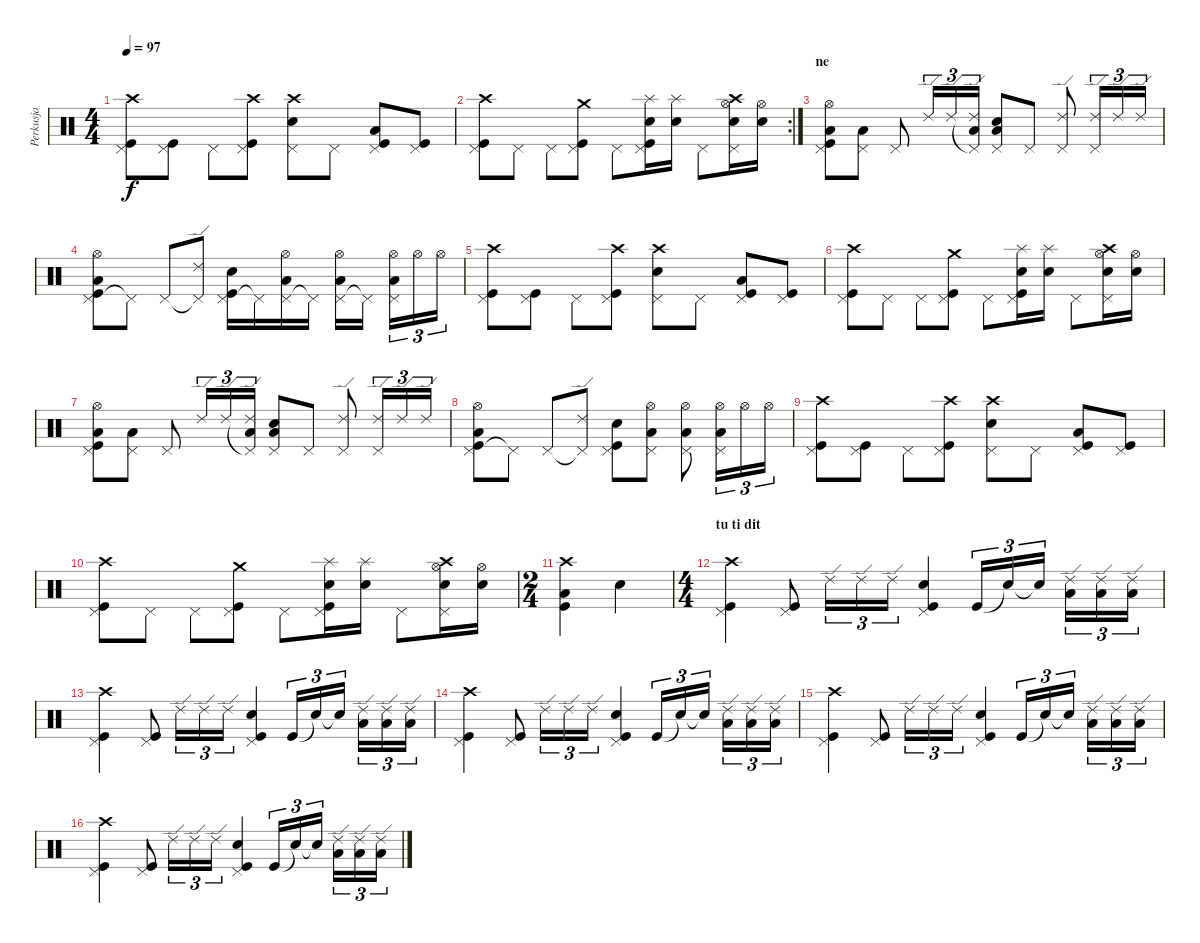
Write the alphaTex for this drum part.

\track ("Perkusja" "Perkusja") {instrument percussion}
\staff {score}
\articulation defaults
\ts (4 4)
\tempo 97
\clef neutral
\ks c
("Crash high (hit)" "Kick (hit)" "Pedal Hi-Hat (hit)").8{dy f} ("Kick (hit)" "Pedal Hi-Hat (hit)").8 "Pedal Hi-Hat (hit)".8 ("Crash high (hit)" "Kick (hit)" "Pedal Hi-Hat (hit)").8 ("Crash high (hit)" "Electric Snare (hit)" "Pedal Hi-Hat (hit)").8 "Pedal Hi-Hat (hit)".8 ("Low Floor Tom (hit)" "Kick (hit)" "Pedal Hi-Hat (hit)").8 ("Kick (hit)" "Pedal Hi-Hat (hit)").8 |
\rc 2
("Crash high (hit)" "Kick (hit)" "Pedal Hi-Hat (hit)").8 "Pedal Hi-Hat (hit)".8 "Pedal Hi-Hat (hit)".8 ("Crash medium (hit)" "Kick (hit)" "Pedal Hi-Hat (hit)").8 "Pedal Hi-Hat (hit)".8 ("Splash (hit)" "Electric Snare (hit)" "Kick (hit)" "Pedal Hi-Hat (hit)").16 ("Splash (hit)" "Electric Snare (hit)").16 "Pedal Hi-Hat (hit)".8 ("Crash high (hit)" "Hi-Hat (open)" "Electric Snare (hit)" "Pedal Hi-Hat (hit)").16 ("Hi-Hat (open)" "Electric Snare (hit)").16 |
\section ("" "ne")
("Pedal Hi-Hat (hit)" "Hi-Hat (open)" "Kick (hit)" "Low Floor Tom (hit)").8 ("Pedal Hi-Hat (hit)" "Low Floor Tom (hit)").8 "Pedal Hi-Hat (hit)".8 "Ride (edge) 2".16{tu (3 2)} "Ride (edge) 2".16{tu (3 2)} ("Pedal Hi-Hat (hit)"{t} "Ride (edge) 2" "Low Floor Tom (hit)").16{tu (3 2)} ("Pedal Hi-Hat (hit)" "Electric Snare (hit)" "Low Floor Tom (hit)").8 "Pedal Hi-Hat (hit)".8 ("Pedal Hi-Hat (hit)" "Ride (edge) 2").8 ("Pedal Hi-Hat (hit)" "Ride (edge) 2").16{tu (3 2)} "Ride (edge) 2".16{tu (3 2)} "Ride (edge) 2".16{tu (3 2)} |
("Pedal Hi-Hat (hit)" "Hi-Hat (open)" "Kick (hit)" "Low Floor Tom (hit)").8 "Pedal Hi-Hat (hit)"{t}.8 "Pedal Hi-Hat (hit)".8 ("Pedal Hi-Hat (hit)"{t} "Ride (edge) 2").8 ("Pedal Hi-Hat (hit)" "Electric Snare (hit)" "Kick (hit)").16 "Pedal Hi-Hat (hit)"{t}.16 ("Pedal Hi-Hat (hit)" "Low Floor Tom (hit)" "Hi-Hat (open)").16 "Pedal Hi-Hat (hit)"{t}.16 ("Pedal Hi-Hat (hit)" "Low Floor Tom (hit)" "Hi-Hat (open)").16 "Pedal Hi-Hat (hit)"{t}.16 ("Pedal Hi-Hat (hit)" "Low Floor Tom (hit)" "Hi-Hat (open)").16{tu (3 2)} "Hi-Hat (open)".16{tu (3 2)} "Hi-Hat (open)".16{tu (3 2)} |
("Crash high (hit)" "Kick (hit)" "Pedal Hi-Hat (hit)").8 ("Kick (hit)" "Pedal Hi-Hat (hit)").8 "Pedal Hi-Hat (hit)".8 ("Crash high (hit)" "Kick (hit)" "Pedal Hi-Hat (hit)").8 ("Crash high (hit)" "Electric Snare (hit)" "Pedal Hi-Hat (hit)").8 "Pedal Hi-Hat (hit)".8 ("Low Floor Tom (hit)" "Kick (hit)" "Pedal Hi-Hat (hit)").8 ("Kick (hit)" "Pedal Hi-Hat (hit)").8 |
("Crash high (hit)" "Kick (hit)" "Pedal Hi-Hat (hit)").8 "Pedal Hi-Hat (hit)".8 "Pedal Hi-Hat (hit)".8 ("Crash medium (hit)" "Kick (hit)" "Pedal Hi-Hat (hit)").8 "Pedal Hi-Hat (hit)".8 ("Splash (hit)" "Electric Snare (hit)" "Kick (hit)" "Pedal Hi-Hat (hit)").16 ("Splash (hit)" "Electric Snare (hit)").16 "Pedal Hi-Hat (hit)".8 ("Crash high (hit)" "Hi-Hat (open)" "Electric Snare (hit)" "Pedal Hi-Hat (hit)").16 ("Hi-Hat (open)" "Electric Snare (hit)").16 |
("Pedal Hi-Hat (hit)" "Hi-Hat (open)" "Kick (hit)" "Low Floor Tom (hit)").8 ("Pedal Hi-Hat (hit)" "Low Floor Tom (hit)").8 "Pedal Hi-Hat (hit)".8 "Ride (edge) 2".16{tu (3 2)} "Ride (edge) 2".16{tu (3 2)} ("Pedal Hi-Hat (hit)"{t} "Ride (edge) 2" "Low Floor Tom (hit)").16{tu (3 2)} ("Pedal Hi-Hat (hit)" "Electric Snare (hit)" "Low Floor Tom (hit)").8 "Pedal Hi-Hat (hit)".8 ("Pedal Hi-Hat (hit)" "Ride (edge) 2").8 ("Pedal Hi-Hat (hit)" "Ride (edge) 2").16{tu (3 2)} "Ride (edge) 2".16{tu (3 2)} "Ride (edge) 2".16{tu (3 2)} |
("Pedal Hi-Hat (hit)" "Hi-Hat (open)" "Kick (hit)" "Low Floor Tom (hit)").8 "Pedal Hi-Hat (hit)"{t}.8 "Pedal Hi-Hat (hit)".8 ("Pedal Hi-Hat (hit)"{t} "Ride (edge) 2").8 ("Pedal Hi-Hat (hit)" "Electric Snare (hit)" "Kick (hit)").8 ("Pedal Hi-Hat (hit)" "Low Floor Tom (hit)" "Hi-Hat (open)").8 ("Pedal Hi-Hat (hit)" "Low Floor Tom (hit)" "Hi-Hat (open)").8 ("Pedal Hi-Hat (hit)" "Low Floor Tom (hit)" "Hi-Hat (open)").16{tu (3 2)} "Hi-Hat (open)".16{tu (3 2)} "Hi-Hat (open)".16{tu (3 2)} |
("Crash high (hit)" "Kick (hit)" "Pedal Hi-Hat (hit)").8 ("Kick (hit)" "Pedal Hi-Hat (hit)").8 "Pedal Hi-Hat (hit)".8 ("Crash high (hit)" "Kick (hit)" "Pedal Hi-Hat (hit)").8 ("Crash high (hit)" "Electric Snare (hit)" "Pedal Hi-Hat (hit)").8 "Pedal Hi-Hat (hit)".8 ("Low Floor Tom (hit)" "Kick (hit)" "Pedal Hi-Hat (hit)").8 ("Kick (hit)" "Pedal Hi-Hat (hit)").8 |
("Crash high (hit)" "Kick (hit)" "Pedal Hi-Hat (hit)").8 "Pedal Hi-Hat (hit)".8 "Pedal Hi-Hat (hit)".8 ("Crash medium (hit)" "Kick (hit)" "Pedal Hi-Hat (hit)").8 "Pedal Hi-Hat (hit)".8 ("Splash (hit)" "Electric Snare (hit)" "Kick (hit)" "Pedal Hi-Hat (hit)").16 ("Splash (hit)" "Electric Snare (hit)").16 "Pedal Hi-Hat (hit)".8 ("Crash high (hit)" "Hi-Hat (open)" "Electric Snare (hit)" "Pedal Hi-Hat (hit)").16 ("Hi-Hat (open)" "Electric Snare (hit)").16 |
\ts (2 4)
("Crash high (hit)" "Kick (hit)" "Low Floor Tom (hit)").4 "Electric Snare (hit)".4 |
\ts (4 4)
\section ("" "tu ti dit")
("Crash high (hit)" "Pedal Hi-Hat (hit)" "Kick (hit)").4 ("Pedal Hi-Hat (hit)" "Kick (hit)").8 "Ride (edge) 2".16{tu (3 2)} "Ride (edge) 2".16{tu (3 2)} "Ride (edge) 2".16{tu (3 2)} ("Electric Snare (hit)" "Pedal Hi-Hat (hit)" "Kick (hit)").4 "Kick (hit)".16{tu (3 2)} "Snare (hit)"{t}.16{tu (3 2)} "Snare (hit)"{t}.16{tu (3 2)} ("Ride (edge) 2" "Low Floor Tom (hit)").16{tu (3 2)} ("Ride (edge) 2" "Low Floor Tom (hit)").16{tu (3 2)} ("Ride (edge) 2" "Low Floor Tom (hit)").16{tu (3 2)} |
("Crash high (hit)" "Pedal Hi-Hat (hit)" "Kick (hit)").4 ("Pedal Hi-Hat (hit)" "Kick (hit)").8 "Ride (edge) 2".16{tu (3 2)} "Ride (edge) 2".16{tu (3 2)} "Ride (edge) 2".16{tu (3 2)} ("Electric Snare (hit)" "Pedal Hi-Hat (hit)" "Kick (hit)").4 "Kick (hit)".16{tu (3 2)} "Snare (hit)"{t}.16{tu (3 2)} "Snare (hit)"{t}.16{tu (3 2)} ("Ride (edge) 2" "Low Floor Tom (hit)").16{tu (3 2)} ("Ride (edge) 2" "Low Floor Tom (hit)").16{tu (3 2)} ("Ride (edge) 2" "Low Floor Tom (hit)").16{tu (3 2)} |
("Crash high (hit)" "Pedal Hi-Hat (hit)" "Kick (hit)").4 ("Pedal Hi-Hat (hit)" "Kick (hit)").8 "Ride (edge) 2".16{tu (3 2)} "Ride (edge) 2".16{tu (3 2)} "Ride (edge) 2".16{tu (3 2)} ("Electric Snare (hit)" "Pedal Hi-Hat (hit)" "Kick (hit)").4 "Kick (hit)".16{tu (3 2)} "Snare (hit)"{t}.16{tu (3 2)} "Snare (hit)"{t}.16{tu (3 2)} ("Ride (edge) 2" "Low Floor Tom (hit)").16{tu (3 2)} ("Ride (edge) 2" "Low Floor Tom (hit)").16{tu (3 2)} ("Ride (edge) 2" "Low Floor Tom (hit)").16{tu (3 2)} |
("Crash high (hit)" "Pedal Hi-Hat (hit)" "Kick (hit)").4 ("Pedal Hi-Hat (hit)" "Kick (hit)").8 "Ride (edge) 2".16{tu (3 2)} "Ride (edge) 2".16{tu (3 2)} "Ride (edge) 2".16{tu (3 2)} ("Electric Snare (hit)" "Pedal Hi-Hat (hit)" "Kick (hit)").4 "Kick (hit)".16{tu (3 2)} "Snare (hit)"{t}.16{tu (3 2)} "Snare (hit)"{t}.16{tu (3 2)} ("Ride (edge) 2" "Low Floor Tom (hit)").16{tu (3 2)} ("Ride (edge) 2" "Low Floor Tom (hit)").16{tu (3 2)} ("Ride (edge) 2" "Low Floor Tom (hit)").16{tu (3 2)} |
("Crash high (hit)" "Pedal Hi-Hat (hit)" "Kick (hit)").4 ("Pedal Hi-Hat (hit)" "Kick (hit)").8 "Ride (edge) 2".16{tu (3 2)} "Ride (edge) 2".16{tu (3 2)} "Ride (edge) 2".16{tu (3 2)} ("Electric Snare (hit)" "Pedal Hi-Hat (hit)" "Kick (hit)").4 "Kick (hit)".16{tu (3 2)} "Snare (hit)"{t}.16{tu (3 2)} "Snare (hit)"{t}.16{tu (3 2)} ("Ride (edge) 2" "Low Floor Tom (hit)").16{tu (3 2)} ("Ride (edge) 2" "Low Floor Tom (hit)").16{tu (3 2)} ("Ride (edge) 2" "Low Floor Tom (hit)").16{tu (3 2)}
